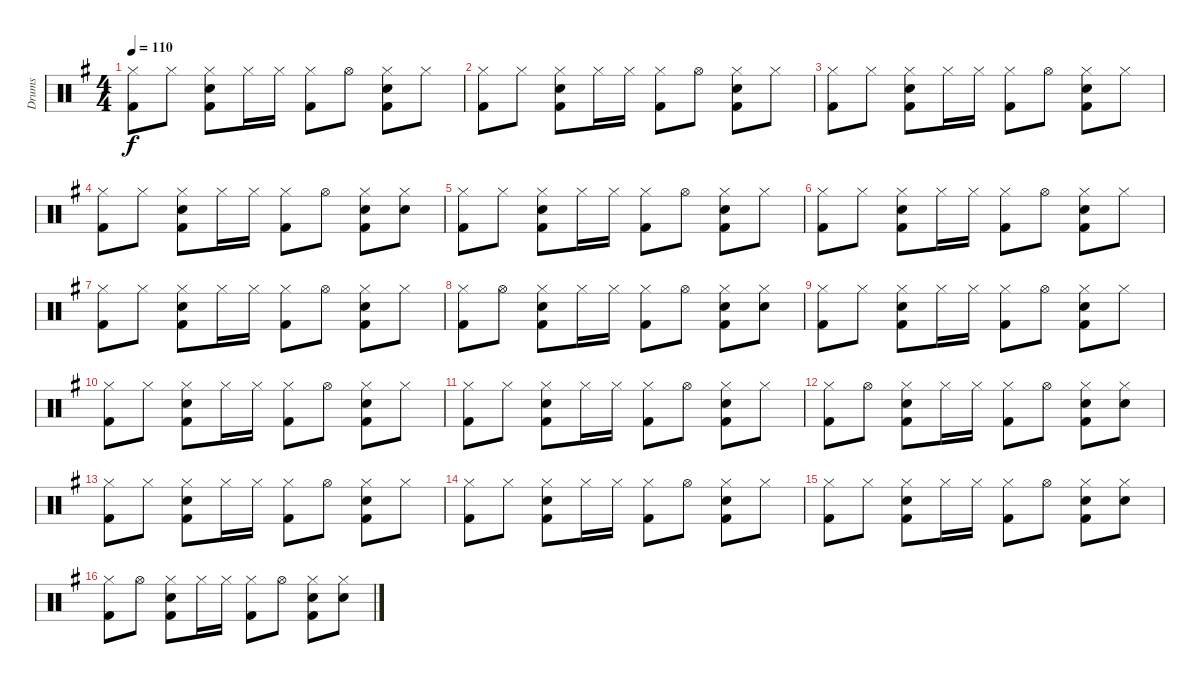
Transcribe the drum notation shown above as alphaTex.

\track ("Drums" "Drums") {instrument percussion}
\staff {score}
\articulation defaults
\ts (4 4)
\tempo 110
\clef neutral
\ks eminor
("Hi-Hat (closed)" "Kick (hit) 2").8{dy f} "Hi-Hat (closed)".8 ("Hi-Hat (closed)" "Snare (hit) 2" "Kick (hit) 2").8 "Hi-Hat (closed)".16 "Hi-Hat (closed)".16 ("Hi-Hat (closed)" "Kick (hit) 2").8 "Hi-Hat (open)".8 ("Hi-Hat (closed)" "Snare (hit) 2" "Kick (hit) 2").8 "Hi-Hat (closed)".8 |
("Hi-Hat (closed)" "Kick (hit) 2").8 "Hi-Hat (closed)".8 ("Hi-Hat (closed)" "Snare (hit) 2" "Kick (hit) 2").8 "Hi-Hat (closed)".16 "Hi-Hat (closed)".16 ("Hi-Hat (closed)" "Kick (hit) 2").8 "Hi-Hat (open)".8 ("Hi-Hat (closed)" "Snare (hit) 2" "Kick (hit) 2").8 "Hi-Hat (closed)".8 |
("Hi-Hat (closed)" "Kick (hit) 2").8 "Hi-Hat (closed)".8 ("Hi-Hat (closed)" "Snare (hit) 2" "Kick (hit) 2").8 "Hi-Hat (closed)".16 "Hi-Hat (closed)".16 ("Hi-Hat (closed)" "Kick (hit) 2").8 "Hi-Hat (open)".8 ("Hi-Hat (closed)" "Snare (hit) 2" "Kick (hit) 2").8 "Hi-Hat (closed)".8 |
("Hi-Hat (closed)" "Kick (hit) 2").8 "Hi-Hat (closed)".8 ("Hi-Hat (closed)" "Snare (hit) 2" "Kick (hit) 2").8 "Hi-Hat (closed)".16 "Hi-Hat (closed)".16 ("Hi-Hat (closed)" "Kick (hit) 2").8 "Hi-Hat (open)".8 ("Hi-Hat (closed)" "Snare (hit) 2" "Kick (hit) 2").8 ("Hi-Hat (closed)" "Snare (hit) 2").8 |
("Hi-Hat (closed)" "Kick (hit) 2").8 "Hi-Hat (closed)".8 ("Hi-Hat (closed)" "Snare (hit) 2" "Kick (hit) 2").8 "Hi-Hat (closed)".16 "Hi-Hat (closed)".16 ("Hi-Hat (closed)" "Kick (hit) 2").8 "Hi-Hat (open)".8 ("Hi-Hat (closed)" "Snare (hit) 2" "Kick (hit) 2").8 "Hi-Hat (closed)".8 |
("Hi-Hat (closed)" "Kick (hit) 2").8 "Hi-Hat (closed)".8 ("Hi-Hat (closed)" "Snare (hit) 2" "Kick (hit) 2").8 "Hi-Hat (closed)".16 "Hi-Hat (closed)".16 ("Hi-Hat (closed)" "Kick (hit) 2").8 "Hi-Hat (open)".8 ("Hi-Hat (closed)" "Snare (hit) 2" "Kick (hit) 2").8 "Hi-Hat (closed)".8 |
("Hi-Hat (closed)" "Kick (hit) 2").8 "Hi-Hat (closed)".8 ("Hi-Hat (closed)" "Snare (hit) 2" "Kick (hit) 2").8 "Hi-Hat (closed)".16 "Hi-Hat (closed)".16 ("Hi-Hat (closed)" "Kick (hit) 2").8 "Hi-Hat (open)".8 ("Hi-Hat (closed)" "Snare (hit) 2" "Kick (hit) 2").8 "Hi-Hat (closed)".8 |
("Hi-Hat (closed)" "Kick (hit) 2").8 "Hi-Hat (open)".8 ("Hi-Hat (closed)" "Snare (hit) 2" "Kick (hit) 2").8 "Hi-Hat (closed)".16 "Hi-Hat (closed)".16 ("Hi-Hat (closed)" "Kick (hit) 2").8 "Hi-Hat (open)".8 ("Hi-Hat (closed)" "Snare (hit) 2" "Kick (hit) 2").8 ("Hi-Hat (closed)" "Snare (hit) 2").8 |
("Hi-Hat (closed)" "Kick (hit) 2").8 "Hi-Hat (closed)".8 ("Hi-Hat (closed)" "Snare (hit) 2" "Kick (hit) 2").8 "Hi-Hat (closed)".16 "Hi-Hat (closed)".16 ("Hi-Hat (closed)" "Kick (hit) 2").8 "Hi-Hat (open)".8 ("Hi-Hat (closed)" "Snare (hit) 2" "Kick (hit) 2").8 "Hi-Hat (closed)".8 |
("Hi-Hat (closed)" "Kick (hit) 2").8 "Hi-Hat (closed)".8 ("Hi-Hat (closed)" "Snare (hit) 2" "Kick (hit) 2").8 "Hi-Hat (closed)".16 "Hi-Hat (closed)".16 ("Hi-Hat (closed)" "Kick (hit) 2").8 "Hi-Hat (open)".8 ("Hi-Hat (closed)" "Snare (hit) 2" "Kick (hit) 2").8 "Hi-Hat (closed)".8 |
("Hi-Hat (closed)" "Kick (hit) 2").8 "Hi-Hat (closed)".8 ("Hi-Hat (closed)" "Snare (hit) 2" "Kick (hit) 2").8 "Hi-Hat (closed)".16 "Hi-Hat (closed)".16 ("Hi-Hat (closed)" "Kick (hit) 2").8 "Hi-Hat (open)".8 ("Hi-Hat (closed)" "Snare (hit) 2" "Kick (hit) 2").8 "Hi-Hat (closed)".8 |
("Hi-Hat (closed)" "Kick (hit) 2").8 "Hi-Hat (open)".8 ("Hi-Hat (closed)" "Snare (hit) 2" "Kick (hit) 2").8 "Hi-Hat (closed)".16 "Hi-Hat (closed)".16 ("Hi-Hat (closed)" "Kick (hit) 2").8 "Hi-Hat (open)".8 ("Hi-Hat (closed)" "Snare (hit) 2" "Kick (hit) 2").8 ("Hi-Hat (closed)" "Snare (hit) 2").8 |
("Hi-Hat (closed)" "Kick (hit) 2").8 "Hi-Hat (closed)".8 ("Hi-Hat (closed)" "Snare (hit) 2" "Kick (hit) 2").8 "Hi-Hat (closed)".16 "Hi-Hat (closed)".16 ("Hi-Hat (closed)" "Kick (hit) 2").8 "Hi-Hat (open)".8 ("Hi-Hat (closed)" "Snare (hit) 2" "Kick (hit) 2").8 "Hi-Hat (closed)".8 |
("Hi-Hat (closed)" "Kick (hit) 2").8 "Hi-Hat (closed)".8 ("Hi-Hat (closed)" "Snare (hit) 2" "Kick (hit) 2").8 "Hi-Hat (closed)".16 "Hi-Hat (closed)".16 ("Hi-Hat (closed)" "Kick (hit) 2").8 "Hi-Hat (open)".8 ("Hi-Hat (closed)" "Snare (hit) 2" "Kick (hit) 2").8 "Hi-Hat (closed)".8 |
("Hi-Hat (closed)" "Kick (hit) 2").8 "Hi-Hat (closed)".8 ("Hi-Hat (closed)" "Snare (hit) 2" "Kick (hit) 2").8 "Hi-Hat (closed)".16 "Hi-Hat (closed)".16 ("Hi-Hat (closed)" "Kick (hit) 2").8 "Hi-Hat (open)".8 ("Hi-Hat (closed)" "Snare (hit) 2" "Kick (hit) 2").8 ("Hi-Hat (closed)" "Snare (hit) 2").8 |
("Hi-Hat (closed)" "Kick (hit) 2").8 "Hi-Hat (open)".8 ("Hi-Hat (closed)" "Snare (hit) 2" "Kick (hit) 2").8 "Hi-Hat (closed)".16 "Hi-Hat (closed)".16 ("Hi-Hat (closed)" "Kick (hit) 2").8 "Hi-Hat (open)".8 ("Hi-Hat (closed)" "Snare (hit) 2" "Kick (hit) 2").8 ("Hi-Hat (closed)" "Snare (hit) 2").8
